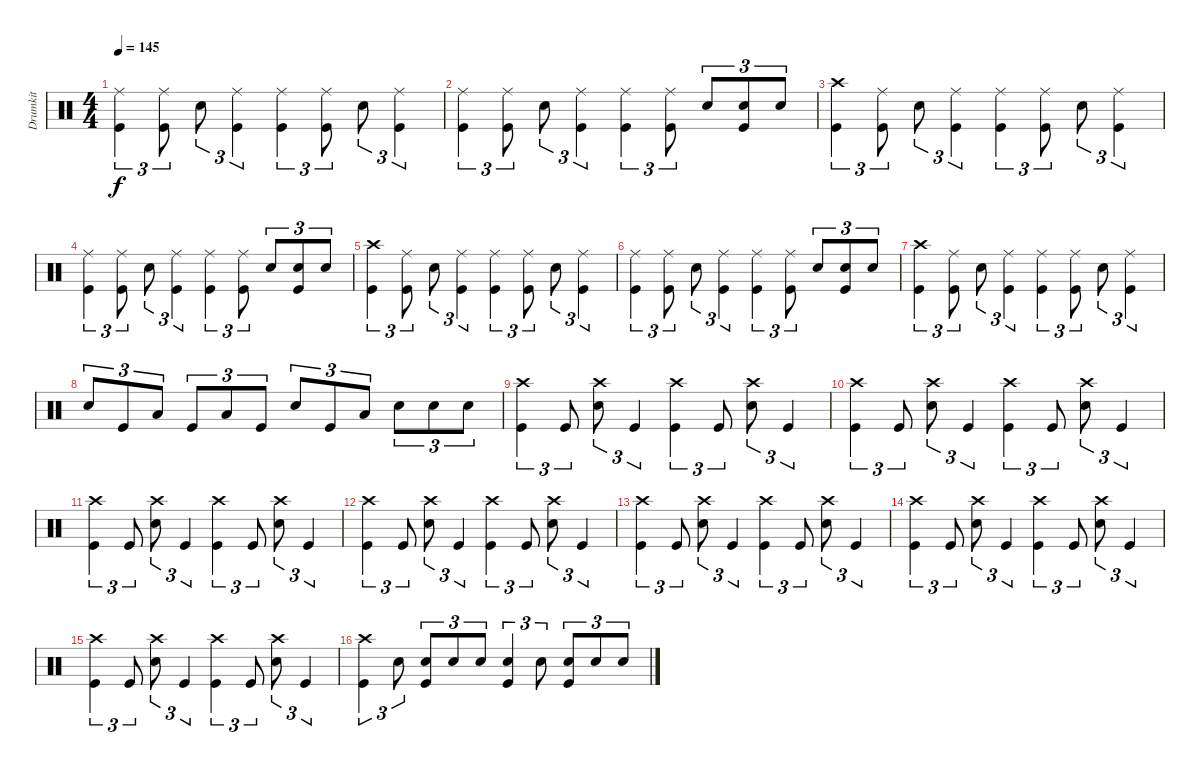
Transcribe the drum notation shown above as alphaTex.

\track ("Drumkit" "Drumkit") {instrument percussion}
\staff {score}
\articulation defaults
\ts (4 4)
\tempo 145
\clef neutral
\ks c
("Ride (middle)" "Kick (hit)").4{tu (3 2) dy f} ("Ride (middle)" "Kick (hit)").8{tu (3 2)} "Snare (hit) 2".8{tu (3 2)} ("Ride (middle)" "Kick (hit)").4{tu (3 2)} ("Ride (middle)" "Kick (hit)").4{tu (3 2)} ("Ride (middle)" "Kick (hit)").8{tu (3 2)} "Snare (hit) 2".8{tu (3 2)} ("Ride (middle)" "Kick (hit)").4{tu (3 2)} |
("Ride (middle)" "Kick (hit)").4{tu (3 2)} ("Ride (middle)" "Kick (hit)").8{tu (3 2)} "Snare (hit) 2".8{tu (3 2)} ("Ride (middle)" "Kick (hit)").4{tu (3 2)} ("Ride (middle)" "Kick (hit)").4{tu (3 2)} ("Ride (middle)" "Kick (hit)").8{tu (3 2)} "Snare (hit) 2".8{tu (3 2)} ("Snare (hit) 2" "Kick (hit)").8{tu (3 2)} "Snare (hit) 2".8{tu (3 2)} |
("Crash high (hit)" "Kick (hit)").4{tu (3 2)} ("Ride (middle)" "Kick (hit)").8{tu (3 2)} "Snare (hit) 2".8{tu (3 2)} ("Ride (middle)" "Kick (hit)").4{tu (3 2)} ("Ride (middle)" "Kick (hit)").4{tu (3 2)} ("Ride (middle)" "Kick (hit)").8{tu (3 2)} "Snare (hit) 2".8{tu (3 2)} ("Ride (middle)" "Kick (hit)").4{tu (3 2)} |
("Ride (middle)" "Kick (hit)").4{tu (3 2)} ("Ride (middle)" "Kick (hit)").8{tu (3 2)} "Snare (hit) 2".8{tu (3 2)} ("Ride (middle)" "Kick (hit)").4{tu (3 2)} ("Ride (middle)" "Kick (hit)").4{tu (3 2)} ("Ride (middle)" "Kick (hit)").8{tu (3 2)} "Snare (hit) 2".8{tu (3 2)} ("Snare (hit) 2" "Kick (hit)").8{tu (3 2)} "Snare (hit) 2".8{tu (3 2)} |
("Crash high (hit)" "Kick (hit)").4{tu (3 2)} ("Ride (middle)" "Kick (hit)").8{tu (3 2)} "Snare (hit) 2".8{tu (3 2)} ("Ride (middle)" "Kick (hit)").4{tu (3 2)} ("Ride (middle)" "Kick (hit)").4{tu (3 2)} ("Ride (middle)" "Kick (hit)").8{tu (3 2)} "Snare (hit) 2".8{tu (3 2)} ("Ride (middle)" "Kick (hit)").4{tu (3 2)} |
("Ride (middle)" "Kick (hit)").4{tu (3 2)} ("Ride (middle)" "Kick (hit)").8{tu (3 2)} "Snare (hit) 2".8{tu (3 2)} ("Ride (middle)" "Kick (hit)").4{tu (3 2)} ("Ride (middle)" "Kick (hit)").4{tu (3 2)} ("Ride (middle)" "Kick (hit)").8{tu (3 2)} "Snare (hit) 2".8{tu (3 2)} ("Snare (hit) 2" "Kick (hit)").8{tu (3 2)} "Snare (hit) 2".8{tu (3 2)} |
("Crash high (hit)" "Kick (hit)").4{tu (3 2)} ("Ride (middle)" "Kick (hit)").8{tu (3 2)} "Snare (hit) 2".8{tu (3 2)} ("Ride (middle)" "Kick (hit)").4{tu (3 2)} ("Ride (middle)" "Kick (hit)").4{tu (3 2)} ("Ride (middle)" "Kick (hit)").8{tu (3 2)} "Snare (hit) 2".8{tu (3 2)} ("Ride (middle)" "Kick (hit)").4{tu (3 2)} |
"Snare (hit) 2".8{tu (3 2)} "Kick (hit)".8{tu (3 2)} "Low Tom (hit)".8{tu (3 2)} "Kick (hit)".8{tu (3 2)} "Low Tom (hit)".8{tu (3 2)} "Kick (hit)".8{tu (3 2)} "Snare (hit) 2".8{tu (3 2)} "Kick (hit)".8{tu (3 2)} "Low Tom (hit)".8{tu (3 2)} "Snare (hit) 2".8{tu (3 2)} "Snare (hit) 2".8{tu (3 2)} "Snare (hit) 2".8{tu (3 2)} |
("Crash high (hit)" "Kick (hit)").4{tu (3 2)} "Kick (hit)".8{tu (3 2)} ("Crash high (hit)" "Snare (hit) 2").8{tu (3 2)} "Kick (hit)".4{tu (3 2)} ("Crash high (hit)" "Kick (hit)").4{tu (3 2)} "Kick (hit)".8{tu (3 2)} ("Crash high (hit)" "Snare (hit) 2").8{tu (3 2)} "Kick (hit)".4{tu (3 2)} |
("Crash high (hit)" "Kick (hit)").4{tu (3 2)} "Kick (hit)".8{tu (3 2)} ("Crash high (hit)" "Snare (hit) 2").8{tu (3 2)} "Kick (hit)".4{tu (3 2)} ("Crash high (hit)" "Kick (hit)").4{tu (3 2)} "Kick (hit)".8{tu (3 2)} ("Crash high (hit)" "Snare (hit) 2").8{tu (3 2)} "Kick (hit)".4{tu (3 2)} |
("Crash high (hit)" "Kick (hit)").4{tu (3 2)} "Kick (hit)".8{tu (3 2)} ("Crash high (hit)" "Snare (hit) 2").8{tu (3 2)} "Kick (hit)".4{tu (3 2)} ("Crash high (hit)" "Kick (hit)").4{tu (3 2)} "Kick (hit)".8{tu (3 2)} ("Crash high (hit)" "Snare (hit) 2").8{tu (3 2)} "Kick (hit)".4{tu (3 2)} |
("Crash high (hit)" "Kick (hit)").4{tu (3 2)} "Kick (hit)".8{tu (3 2)} ("Crash high (hit)" "Snare (hit) 2").8{tu (3 2)} "Kick (hit)".4{tu (3 2)} ("Crash high (hit)" "Kick (hit)").4{tu (3 2)} "Kick (hit)".8{tu (3 2)} ("Crash high (hit)" "Snare (hit) 2").8{tu (3 2)} "Kick (hit)".4{tu (3 2)} |
("Crash high (hit)" "Kick (hit)").4{tu (3 2)} "Kick (hit)".8{tu (3 2)} ("Crash high (hit)" "Snare (hit) 2").8{tu (3 2)} "Kick (hit)".4{tu (3 2)} ("Crash high (hit)" "Kick (hit)").4{tu (3 2)} "Kick (hit)".8{tu (3 2)} ("Crash high (hit)" "Snare (hit) 2").8{tu (3 2)} "Kick (hit)".4{tu (3 2)} |
("Crash high (hit)" "Kick (hit)").4{tu (3 2)} "Kick (hit)".8{tu (3 2)} ("Crash high (hit)" "Snare (hit) 2").8{tu (3 2)} "Kick (hit)".4{tu (3 2)} ("Crash high (hit)" "Kick (hit)").4{tu (3 2)} "Kick (hit)".8{tu (3 2)} ("Crash high (hit)" "Snare (hit) 2").8{tu (3 2)} "Kick (hit)".4{tu (3 2)} |
("Crash high (hit)" "Kick (hit)").4{tu (3 2)} "Kick (hit)".8{tu (3 2)} ("Crash high (hit)" "Snare (hit) 2").8{tu (3 2)} "Kick (hit)".4{tu (3 2)} ("Crash high (hit)" "Kick (hit)").4{tu (3 2)} "Kick (hit)".8{tu (3 2)} ("Crash high (hit)" "Snare (hit) 2").8{tu (3 2)} "Kick (hit)".4{tu (3 2)} |
("Crash high (hit)" "Kick (hit)").4{tu (3 2)} "Snare (hit) 2".8{tu (3 2)} ("Snare (hit) 2" "Kick (hit)").8{tu (3 2)} "Snare (hit) 2".8{tu (3 2)} "Snare (hit) 2".8{tu (3 2)} ("Snare (hit) 2" "Kick (hit)").4{tu (3 2)} "Snare (hit) 2".8{tu (3 2)} ("Snare (hit) 2" "Kick (hit)").8{tu (3 2)} "Snare (hit) 2".8{tu (3 2)} "Snare (hit) 2".8{tu (3 2)}
